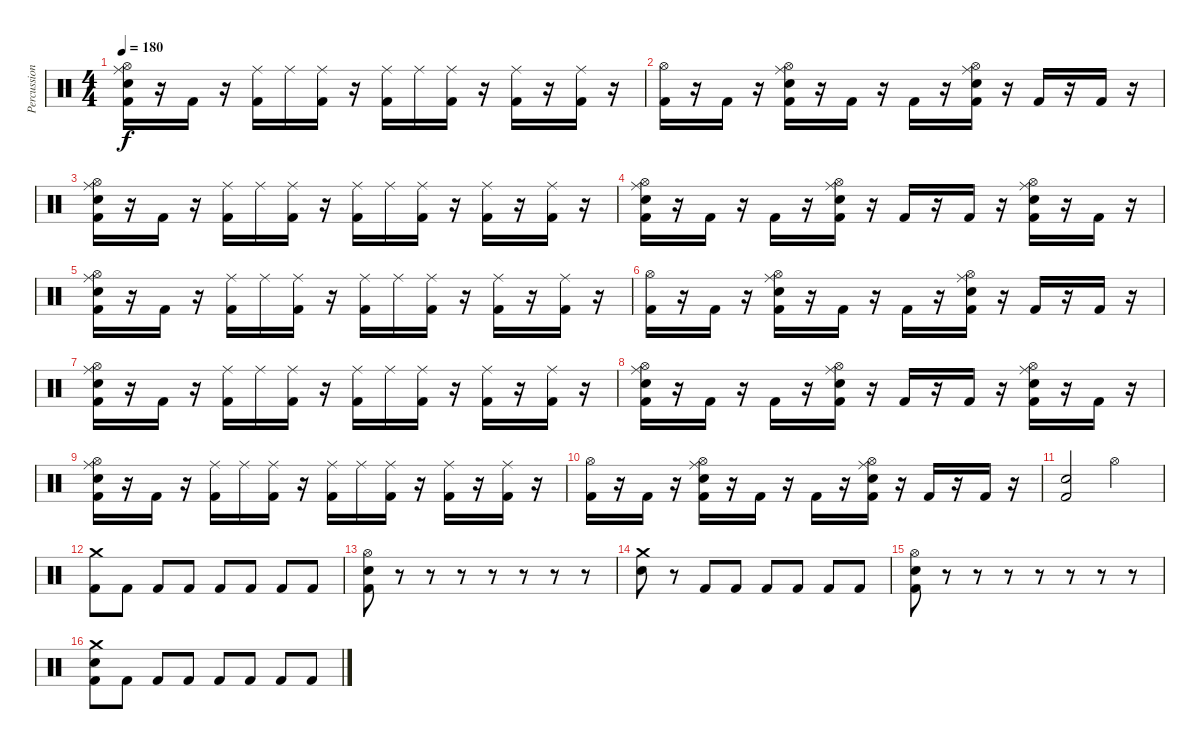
\track ("Percussion" "Percussion") {instrument percussion}
\staff {score}
\articulation defaults
\ts (4 4)
\tempo 180
\clef neutral
\ks c
("Hi-Hat (open)" "Ride (middle)" "Snare (hit) 2" "Kick (hit) 2").16{dy f} r.16 "Kick (hit) 2".16 r.16 ("Ride (middle)" "Kick (hit) 2").16 "Ride (middle)".16 ("Ride (middle)" "Kick (hit) 2").16 r.16 ("Ride (middle)" "Kick (hit) 2").16 "Ride (middle)".16 ("Ride (middle)" "Kick (hit) 2").16 r.16 ("Ride (middle)" "Kick (hit) 2").16 r.16 ("Ride (middle)" "Kick (hit) 2").16 r.16 |
("Hi-Hat (open)" "Kick (hit) 2").16 r.16 "Kick (hit) 2".16 r.16 ("Hi-Hat (open)" "Ride (middle)" "Snare (hit) 2" "Kick (hit) 2").16 r.16 "Kick (hit) 2".16 r.16 "Kick (hit) 2".16 r.16 ("Hi-Hat (open)" "Ride (middle)" "Snare (hit) 2" "Kick (hit) 2").16 r.16 "Kick (hit) 2".16 r.16 "Kick (hit) 2".16 r.16 |
("Hi-Hat (open)" "Ride (middle)" "Snare (hit) 2" "Kick (hit) 2").16 r.16 "Kick (hit) 2".16 r.16 ("Ride (middle)" "Kick (hit) 2").16 "Ride (middle)".16 ("Ride (middle)" "Kick (hit) 2").16 r.16 ("Ride (middle)" "Kick (hit) 2").16 "Ride (middle)".16 ("Ride (middle)" "Kick (hit) 2").16 r.16 ("Ride (middle)" "Kick (hit) 2").16 r.16 ("Ride (middle)" "Kick (hit) 2").16 r.16 |
("Hi-Hat (open)" "Ride (middle)" "Snare (hit) 2" "Kick (hit) 2").16 r.16 "Kick (hit) 2".16 r.16 "Kick (hit) 2".16 r.16 ("Hi-Hat (open)" "Ride (middle)" "Snare (hit) 2" "Kick (hit) 2").16 r.16 "Kick (hit) 2".16 r.16 "Kick (hit) 2".16 r.16 ("Hi-Hat (open)" "Ride (middle)" "Snare (hit) 2" "Kick (hit) 2").16 r.16 "Kick (hit) 2".16 r.16 |
("Hi-Hat (open)" "Ride (middle)" "Snare (hit) 2" "Kick (hit) 2").16 r.16 "Kick (hit) 2".16 r.16 ("Ride (middle)" "Kick (hit) 2").16 "Ride (middle)".16 ("Ride (middle)" "Kick (hit) 2").16 r.16 ("Ride (middle)" "Kick (hit) 2").16 "Ride (middle)".16 ("Ride (middle)" "Kick (hit) 2").16 r.16 ("Ride (middle)" "Kick (hit) 2").16 r.16 ("Ride (middle)" "Kick (hit) 2").16 r.16 |
("Hi-Hat (open)" "Kick (hit) 2").16 r.16 "Kick (hit) 2".16 r.16 ("Hi-Hat (open)" "Ride (middle)" "Snare (hit) 2" "Kick (hit) 2").16 r.16 "Kick (hit) 2".16 r.16 "Kick (hit) 2".16 r.16 ("Hi-Hat (open)" "Ride (middle)" "Snare (hit) 2" "Kick (hit) 2").16 r.16 "Kick (hit) 2".16 r.16 "Kick (hit) 2".16 r.16 |
("Hi-Hat (open)" "Ride (middle)" "Snare (hit) 2" "Kick (hit) 2").16 r.16 "Kick (hit) 2".16 r.16 ("Ride (middle)" "Kick (hit) 2").16 "Ride (middle)".16 ("Ride (middle)" "Kick (hit) 2").16 r.16 ("Ride (middle)" "Kick (hit) 2").16 "Ride (middle)".16 ("Ride (middle)" "Kick (hit) 2").16 r.16 ("Ride (middle)" "Kick (hit) 2").16 r.16 ("Ride (middle)" "Kick (hit) 2").16 r.16 |
("Hi-Hat (open)" "Ride (middle)" "Snare (hit) 2" "Kick (hit) 2").16 r.16 "Kick (hit) 2".16 r.16 "Kick (hit) 2".16 r.16 ("Hi-Hat (open)" "Ride (middle)" "Snare (hit) 2" "Kick (hit) 2").16 r.16 "Kick (hit) 2".16 r.16 "Kick (hit) 2".16 r.16 ("Hi-Hat (open)" "Ride (middle)" "Snare (hit) 2" "Kick (hit) 2").16 r.16 "Kick (hit) 2".16 r.16 |
("Hi-Hat (open)" "Ride (middle)" "Snare (hit) 2" "Kick (hit) 2").16 r.16 "Kick (hit) 2".16 r.16 ("Ride (middle)" "Kick (hit) 2").16 "Ride (middle)".16 ("Ride (middle)" "Kick (hit) 2").16 r.16 ("Ride (middle)" "Kick (hit) 2").16 "Ride (middle)".16 ("Ride (middle)" "Kick (hit) 2").16 r.16 ("Ride (middle)" "Kick (hit) 2").16 r.16 ("Ride (middle)" "Kick (hit) 2").16 r.16 |
("Hi-Hat (open)" "Kick (hit) 2").16 r.16 "Kick (hit) 2".16 r.16 ("Hi-Hat (open)" "Ride (middle)" "Snare (hit) 2" "Kick (hit) 2").16 r.16 "Kick (hit) 2".16 r.16 "Kick (hit) 2".16 r.16 ("Hi-Hat (open)" "Ride (middle)" "Snare (hit) 2" "Kick (hit) 2").16 r.16 "Kick (hit) 2".16 r.16 "Kick (hit) 2".16 r.16 |
("Snare (hit) 2" "Kick (hit) 2").2 "Hi-Hat (open)".2 |
("Crash medium (hit)" "Kick (hit) 2").8 "Kick (hit) 2".8 "Kick (hit) 2".8 "Kick (hit) 2".8 "Kick (hit) 2".8 "Kick (hit) 2".8 "Kick (hit) 2".8 "Kick (hit) 2".8 |
("Hi-Hat (open)" "Snare (hit) 2" "Kick (hit) 2").8 r.8 r.8 r.8 r.8 r.8 r.8 r.8 |
("Crash medium (hit)" "Snare (hit) 2").8 r.8 "Kick (hit) 2".8 "Kick (hit) 2".8 "Kick (hit) 2".8 "Kick (hit) 2".8 "Kick (hit) 2".8 "Kick (hit) 2".8 |
("Hi-Hat (open)" "Snare (hit) 2" "Kick (hit) 2").8 r.8 r.8 r.8 r.8 r.8 r.8 r.8 |
("Crash medium (hit)" "Snare (hit) 2" "Kick (hit) 2").8 "Kick (hit) 2".8 "Kick (hit) 2".8 "Kick (hit) 2".8 "Kick (hit) 2".8 "Kick (hit) 2".8 "Kick (hit) 2".8 "Kick (hit) 2".8
